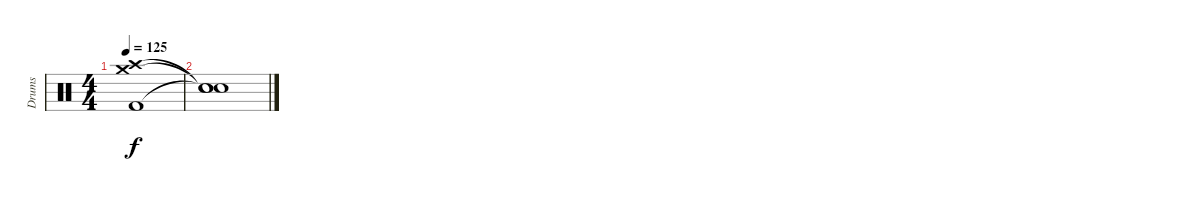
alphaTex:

\track ("Drums" "Drums") {instrument percussion}
\staff {score}
\articulation defaults
\ts (4 4)
\tempo 125
\clef neutral
\ks c
("Crash medium (hit)" "Crash high (hit)" "Kick (hit) 2").1{dy f} |
("Snare (hit)"{t} "Snare (hit)"{t} "Snare (hit)"{t}).1
